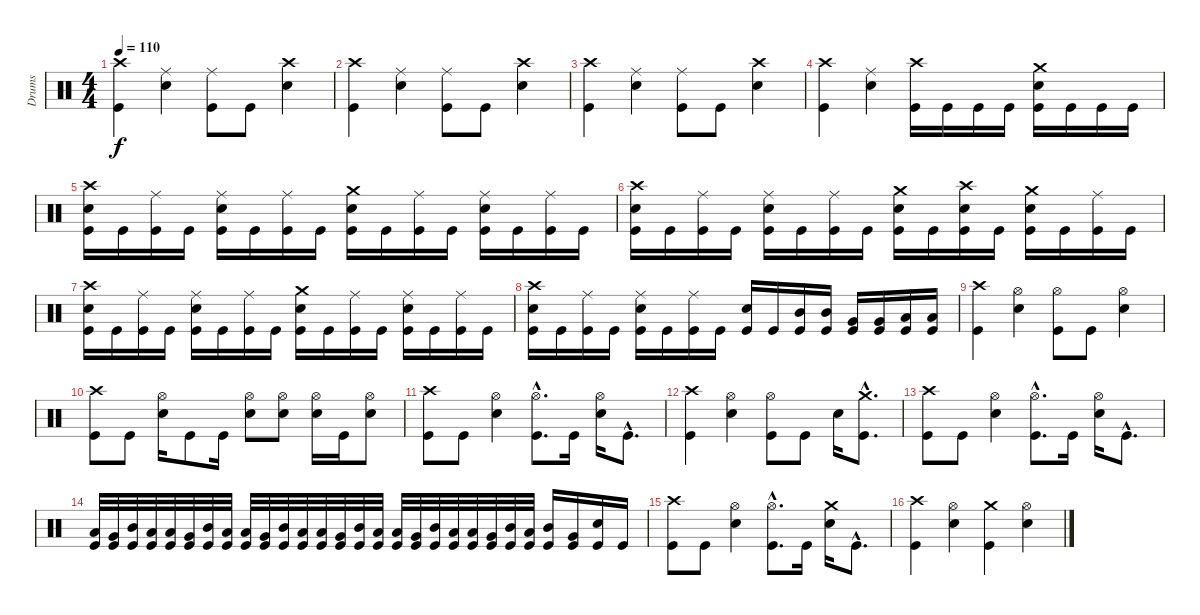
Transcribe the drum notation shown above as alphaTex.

\track ("Drums" "Drums") {instrument percussion}
\staff {score}
\articulation defaults
\ts (4 4)
\tempo 110
\clef neutral
\ks c
("Crash high (hit)" "Kick (hit)").4{dy f} ("Ride (middle)" "Snare (hit) 2").4 ("Ride (middle)" "Kick (hit)").8 "Kick (hit)".8 ("Crash high (hit)" "Snare (hit) 2").4 |
("Crash high (hit)" "Kick (hit)").4 ("Ride (middle)" "Snare (hit) 2").4 ("Ride (middle)" "Kick (hit)").8 "Kick (hit)".8 ("Crash high (hit)" "Snare (hit) 2").4 |
("Crash high (hit)" "Kick (hit)").4 ("Ride (middle)" "Snare (hit) 2").4 ("Ride (middle)" "Kick (hit)").8 "Kick (hit)".8 ("Crash high (hit)" "Snare (hit) 2").4 |
("Crash high (hit)" "Kick (hit)").4 ("Ride (middle)" "Snare (hit) 2").4 ("Crash high (hit)" "Kick (hit)").16 "Kick (hit)".16 "Kick (hit)".16 "Kick (hit)".16 ("Crash medium (hit)" "Snare (hit) 2" "Kick (hit)").16 "Kick (hit)".16 "Kick (hit)".16 "Kick (hit)".16 |
("Crash high (hit)" "Snare (hit) 2" "Kick (hit)").16 "Kick (hit)".16 ("Ride (middle)" "Kick (hit)").16 "Kick (hit)".16 ("Ride (middle)" "Snare (hit) 2" "Kick (hit)").16 "Kick (hit)".16 ("Ride (middle)" "Kick (hit)").16 "Kick (hit)".16 ("Crash medium (hit)" "Snare (hit) 2" "Kick (hit)").16 "Kick (hit)".16 ("Ride (middle)" "Kick (hit)").16 "Kick (hit)".16 ("Ride (middle)" "Snare (hit) 2" "Kick (hit)").16 "Kick (hit)".16 ("Ride (middle)" "Kick (hit)").16 "Kick (hit)".16 |
("Crash high (hit)" "Snare (hit) 2" "Kick (hit)").16 "Kick (hit)".16 ("Ride (middle)" "Kick (hit)").16 "Kick (hit)".16 ("Ride (middle)" "Snare (hit) 2" "Kick (hit)").16 "Kick (hit)".16 ("Ride (middle)" "Kick (hit)").16 "Kick (hit)".16 ("Crash medium (hit)" "Snare (hit) 2" "Kick (hit)").16 "Kick (hit)".16 ("Crash high (hit)" "Snare (hit) 2" "Kick (hit)").16 "Kick (hit)".16 ("Crash medium (hit)" "Snare (hit) 2" "Kick (hit)").16 "Kick (hit)".16 ("Ride (middle)" "Kick (hit)").16 "Kick (hit)".16 |
("Crash high (hit)" "Snare (hit) 2" "Kick (hit)").16 "Kick (hit)".16 ("Ride (middle)" "Kick (hit)").16 "Kick (hit)".16 ("Ride (middle)" "Snare (hit) 2" "Kick (hit)").16 "Kick (hit)".16 ("Ride (middle)" "Kick (hit)").16 "Kick (hit)".16 ("Crash medium (hit)" "Snare (hit) 2" "Kick (hit)").16 "Kick (hit)".16 ("Ride (middle)" "Kick (hit)").16 "Kick (hit)".16 ("Ride (middle)" "Snare (hit) 2" "Kick (hit)").16 "Kick (hit)".16 ("Ride (middle)" "Kick (hit)").16 "Kick (hit)".16 |
("Crash high (hit)" "Snare (hit) 2" "Kick (hit)").16 "Kick (hit)".16 ("Ride (middle)" "Kick (hit)").16 "Kick (hit)".16 ("Ride (middle)" "Snare (hit) 2" "Kick (hit)").16 "Kick (hit)".16 ("Ride (middle)" "Kick (hit)").16 "Kick (hit)".16 ("Snare (hit) 2" "Kick (hit)").16 "Kick (hit)".16 ("Mid Tom (hit)" "Kick (hit)").16 ("Mid Tom (hit)" "Kick (hit)").16 ("Very Low Tom (hit)" "Kick (hit)").16 ("Very Low Tom (hit)" "Kick (hit)").16 ("Low Floor Tom (hit)" "Kick (hit)").16 ("Low Floor Tom (hit)" "Kick (hit)").16 |
("Crash high (hit)" "Kick (hit)").4 ("Hi-Hat (open)" "Snare (hit) 2").4 ("Hi-Hat (open)" "Kick (hit)").8 "Kick (hit)".8 ("Hi-Hat (open)" "Snare (hit) 2").4 |
("Crash high (hit)" "Kick (hit)").8 "Kick (hit)".8 ("Hi-Hat (open)" "Snare (hit) 2").16 "Kick (hit)".8 "Kick (hit)".16 ("Hi-Hat (open)" "Snare (hit) 2").8 ("Hi-Hat (open)" "Snare (hit) 2").8 ("Hi-Hat (open)" "Snare (hit) 2").16 "Kick (hit)".16 ("Hi-Hat (open)" "Snare (hit) 2").8 |
("Crash high (hit)" "Kick (hit)").8 "Kick (hit)".8 ("Hi-Hat (open)" "Snare (hit) 2").4 ("Hi-Hat (open)"{hac} "Kick (hit)"{hac}).8{d} "Kick (hit)".16 ("Hi-Hat (open)" "Snare (hit) 2").16 "Kick (hit)"{hac}.8{d} |
("Crash high (hit)" "Kick (hit)").4 ("Hi-Hat (open)" "Snare (hit) 2").4 ("Hi-Hat (open)" "Kick (hit)").8 "Kick (hit)".8 "Snare (hit) 2".16 ("Crash medium (hit)"{hac} "Kick (hit)"{hac}).8{d} |
("Crash high (hit)" "Kick (hit)").8 "Kick (hit)".8 ("Hi-Hat (open)" "Snare (hit) 2").4 ("Hi-Hat (open)"{hac} "Kick (hit)"{hac}).8{d} "Kick (hit)".16 ("Hi-Hat (open)" "Snare (hit) 2").16 "Kick (hit)"{hac}.8{d} |
("Low Floor Tom (hit)" "Kick (hit)").32 ("Very Low Tom (hit)" "Kick (hit)").32 ("Mid Tom (hit)" "Kick (hit)").32 ("Low Tom (hit)" "Kick (hit)").32 ("Low Floor Tom (hit)" "Kick (hit)").32 ("Very Low Tom (hit)" "Kick (hit)").32 ("Mid Tom (hit)" "Kick (hit)").32 ("Low Tom (hit)" "Kick (hit)").32 ("Low Floor Tom (hit)" "Kick (hit)").32 ("Very Low Tom (hit)" "Kick (hit)").32 ("Mid Tom (hit)" "Kick (hit)").32 ("Low Tom (hit)" "Kick (hit)").32 ("Low Floor Tom (hit)" "Kick (hit)").32 ("Very Low Tom (hit)" "Kick (hit)").32 ("Mid Tom (hit)" "Kick (hit)").32 ("Low Tom (hit)" "Kick (hit)").32 ("Low Floor Tom (hit)" "Kick (hit)").32 ("Very Low Tom (hit)" "Kick (hit)").32 ("Mid Tom (hit)" "Kick (hit)").32 ("Low Tom (hit)" "Kick (hit)").32 ("Low Floor Tom (hit)" "Kick (hit)").32 ("Very Low Tom (hit)" "Kick (hit)").32 ("Mid Tom (hit)" "Kick (hit)").32 ("Low Tom (hit)" "Kick (hit)").32 ("Mid Tom (hit)" "Kick (hit)").16 ("Very Low Tom (hit)" "Kick (hit)").16 ("Snare (hit) 2" "Kick (hit)").16 "Kick (hit)".16 |
("Crash high (hit)" "Kick (hit)").8 "Kick (hit)".8 ("Hi-Hat (open)" "Snare (hit) 2").4 ("Hi-Hat (open)"{hac} "Kick (hit)"{hac}).8{d} "Kick (hit)".16 ("Crash medium (hit)" "Snare (hit) 2").16 "Kick (hit)"{hac}.8{d} |
("Crash high (hit)" "Kick (hit)").4 ("Hi-Hat (open)" "Snare (hit) 2").4 ("Crash medium (hit)" "Kick (hit)").4 ("Hi-Hat (open)" "Snare (hit) 2").4
